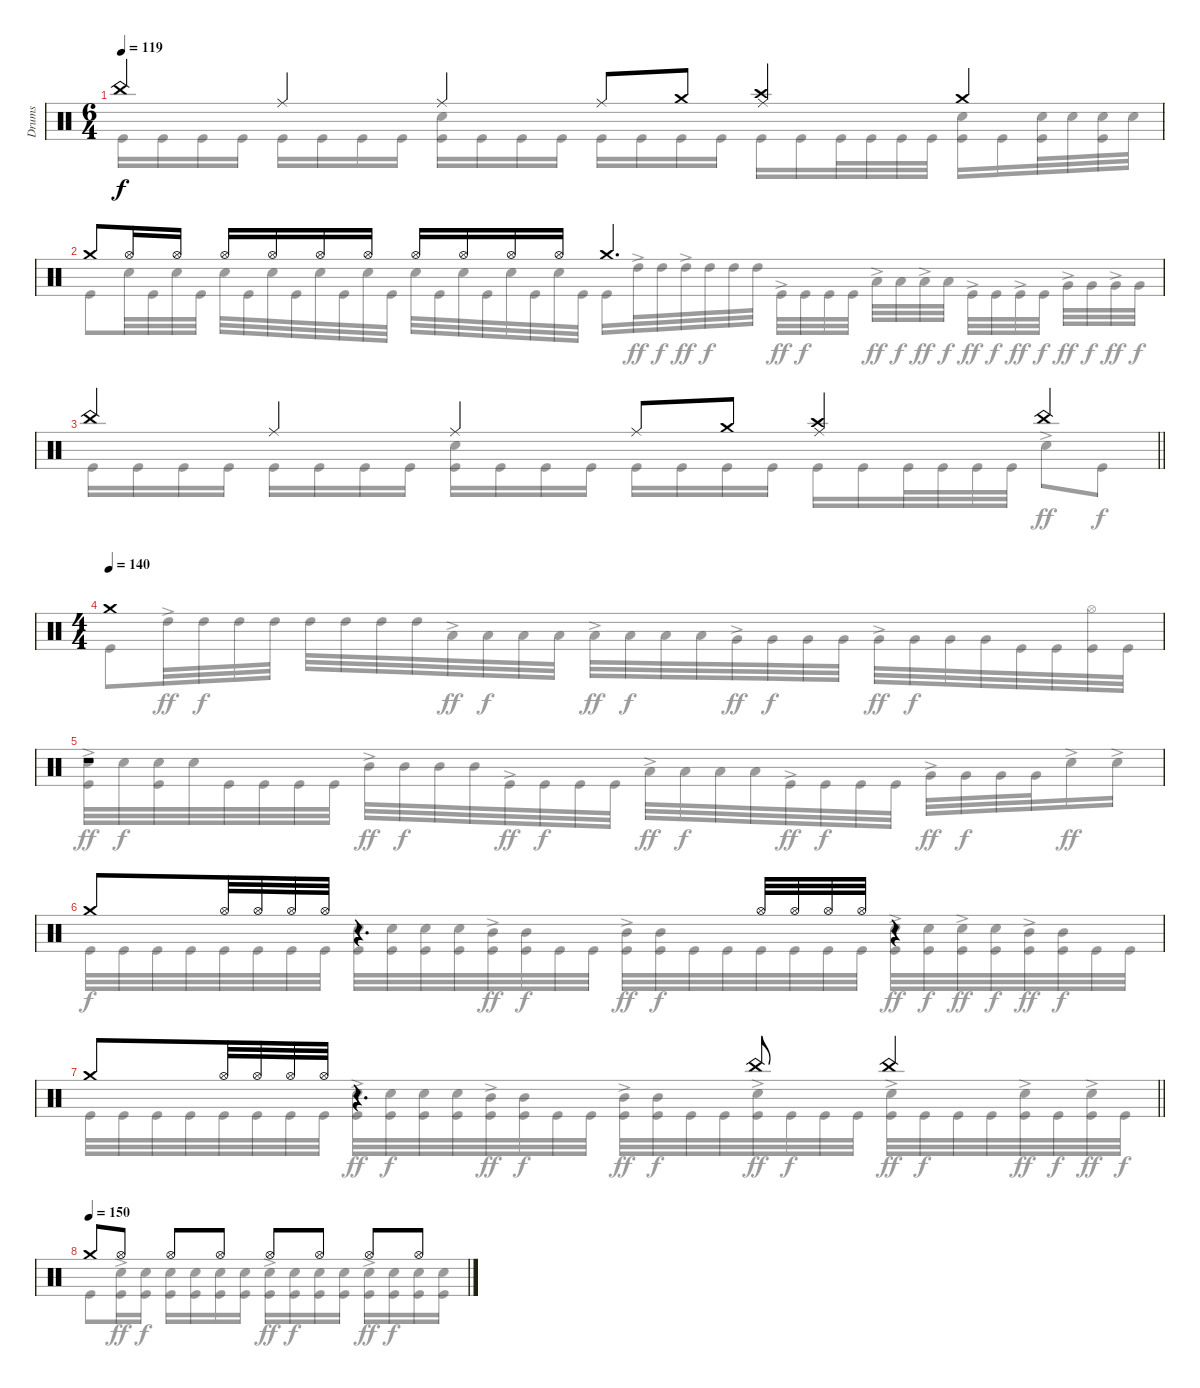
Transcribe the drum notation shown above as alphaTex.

\track ("Drums" "Drums") {instrument percussion}
\staff {score}
\articulation defaults
\voice
\ts (6 4)
\tempo 119
\clef neutral
\ks c "China (hit)".4{dy f} "Ride (middle)".4 "Ride (middle)".4 "Ride (middle)".8 "Crash medium (hit)".8
("Ride (middle)" "Crash high (hit)").4 "Crash medium (hit)".4 |
"Crash medium (hit)".8 "Hi-Hat (open)".16 "Hi-Hat (open)".16 "Hi-Hat (open)".16 "Hi-Hat (open)".16 "Hi-Hat (open)".16 "Hi-Hat (open)".16 "Hi-Hat (open)".16 "Hi-Hat (open)".16 "Hi-Hat (open)".16 "Hi-Hat (open)".16 "Crash medium (hit)".2{d} |
\barLineRight lightlight "China (hit)".4 "Ride (middle)".4 "Ride (middle)".4 "Ride (middle)".8 "Crash medium (hit)".8
("Ride (middle)" "Crash high (hit)").4 "China (hit)".4 |
\ts (4 4)
\section ("" "")
\tempo 120
\tempo (140)
"Crash medium (hit)".1 |
r.1 |
"Crash medium (hit)".8 "Hi-Hat (open)".32 "Hi-Hat (open)".32 "Hi-Hat (open)".32 "Hi-Hat (open)".32 r.4{d} "Hi-Hat (open)".32 "Hi-Hat (open)".32 "Hi-Hat (open)".32 "Hi-Hat (open)".32 r.4 |
\barLineRight lightlight "Crash medium (hit)".8 "Hi-Hat (open)".32 "Hi-Hat (open)".32 "Hi-Hat (open)".32 "Hi-Hat (open)".32
r.4{d} "China (hit)".8 "China (hit)".4 |
\tempo (150)
"Crash medium (hit)".8 "Hi-Hat (open)".8 "Hi-Hat (open)".8 "Hi-Hat (open)".8 "Hi-Hat (open)".8 "Hi-Hat (open)".8 "Hi-Hat (open)".8 "Hi-Hat (open)".8
\voice
\clef neutral
\ottava regular
\simile none
\ks c "Kick (hit)".16{dy f} "Kick (hit)".16 "Kick (hit)".16 "Kick (hit)".16{beam split} "Kick (hit)".16 "Kick (hit)".16 "Kick (hit)".16 "Kick (hit)".16{beam split}
("Snare (hit) 2" "Kick (hit)").16 "Kick (hit)".16 "Kick (hit)".16 "Kick (hit)".16 "Kick (hit)".16 "Kick (hit)".16 "Kick (hit)".16 "Kick (hit)".16{beam split} "Kick (hit)".16 "Kick (hit)".16 "Kick (hit)".32 "Kick (hit)".32 "Kick (hit)".32 "Kick (hit)".32{beam split} ("Snare (hit) 2" "Kick (hit)").16 "Kick (hit)".16 ("Snare (hit) 2" "Kick (hit)").32 "Snare (hit) 2".32 ("Snare (hit) 2" "Kick (hit)").32 "Snare (hit) 2".32 |
"Kick (hit)".8 "Snare (hit) 2".32 "Kick (hit)".32 "Snare (hit) 2".32 "Kick (hit)".32 "Snare (hit) 2".32 "Kick (hit)".32 "Snare (hit) 2".32 "Kick (hit)".32 "Snare (hit) 2".32 "Kick (hit)".32 "Snare (hit) 2".32 "Kick (hit)".32 "Snare (hit) 2".32 "Kick (hit)".32 "Snare (hit) 2".32 "Kick (hit)".32 "Snare (hit) 2".32 "Kick (hit)".32 "Snare (hit) 2".32 "Kick (hit)".32 "Kick (hit)".16 "High Tom (hit)"{ac}.32{dy ff} "High Tom (hit)".32{dy f} "High Tom (hit)"{ac}.32{dy ff} "High Tom (hit)".32{dy f} "High Tom (hit)".32 "High Tom (hit)".32{beam split} "Kick (hit)"{ac}.32{dy ff} "Kick (hit)".32{dy f} "Kick (hit)".32 "Kick (hit)".32{beam split} "Low Tom (hit)"{ac}.32{dy ff} "Low Tom (hit)".32{dy f} "Low Tom (hit)"{ac}.32{dy ff} "Low Tom (hit)".32{dy f beam split} "Kick (hit)"{ac}.32{dy ff} "Kick (hit)".32{dy f} "Kick (hit)"{ac}.32{dy ff} "Kick (hit)".32{dy f beam split} "Very Low Tom (hit)"{ac}.32{dy ff} "Very Low Tom (hit)".32{dy f} "Very Low Tom (hit)"{ac}.32{dy ff} "Very Low Tom (hit)".32{dy f} |
\barLineRight lightlight "Kick (hit)".16 "Kick (hit)".16 "Kick (hit)".16 "Kick (hit)".16{beam split} "Kick (hit)".16 "Kick (hit)".16 "Kick (hit)".16 "Kick (hit)".16{beam split}
("Snare (hit) 2" "Kick (hit)").16 "Kick (hit)".16 "Kick (hit)".16 "Kick (hit)".16 "Kick (hit)".16 "Kick (hit)".16 "Kick (hit)".16 "Kick (hit)".16{beam split} "Kick (hit)".16 "Kick (hit)".16 "Kick (hit)".32 "Kick (hit)".32 "Kick (hit)".32 "Kick (hit)".32{beam split} "Snare (hit) 2"{ac}.8{dy ff} "Kick (hit)".8{dy f} |
"Kick (hit)".8 "High Tom (hit)"{ac}.32{dy ff} "High Tom (hit)".32{dy f} "High Tom (hit)".32 "High Tom (hit)".32 "High Tom (hit)".32 "High Tom (hit)".32 "High Tom (hit)".32 "High Tom (hit)".32 "Low Tom (hit)"{ac}.32{dy ff} "Low Tom (hit)".32{dy f} "Low Tom (hit)".32 "Low Tom (hit)".32 "Low Tom (hit)"{ac}.32{dy ff} "Low Tom (hit)".32{dy f} "Low Tom (hit)".32 "Low Tom (hit)".32 "Very Low Tom (hit)"{ac}.32{dy ff} "Very Low Tom (hit)".32{dy f} "Very Low Tom (hit)".32 "Very Low Tom (hit)".32 "Very Low Tom (hit)"{ac}.32{dy ff} "Very Low Tom (hit)".32{dy f} "Very Low Tom (hit)".32 "Very Low Tom (hit)".32 "Kick (hit)".32 "Kick (hit)".32 ("Hi-Hat (open)" "Kick (hit)").32 "Kick (hit)".32 |
("Snare (hit) 2"{ac} "Kick (hit)").32{dy ff} "Snare (hit) 2".32{dy f} ("Snare (hit) 2" "Kick (hit)").32 "Snare (hit) 2".32 "Kick (hit)".32 "Kick (hit)".32 "Kick (hit)".32 "Kick (hit)".32 "Mid Tom (hit)"{ac}.32{dy ff} "Mid Tom (hit)".32{dy f} "Mid Tom (hit)".32 "Mid Tom (hit)".32 "Kick (hit)"{ac}.32{dy ff} "Kick (hit)".32{dy f} "Kick (hit)".32 "Kick (hit)".32 "Low Tom (hit)"{ac}.32{dy ff} "Low Tom (hit)".32{dy f} "Low Tom (hit)".32 "Low Tom (hit)".32 "Kick (hit)"{ac}.32{dy ff} "Kick (hit)".32{dy f} "Kick (hit)".32 "Kick (hit)".32 "Very Low Tom (hit)"{ac}.32{dy ff} "Very Low Tom (hit)".32{dy f} "Very Low Tom (hit)".32 "Very Low Tom (hit)".32 "Snare (hit) 2"{ac}.16{dy ff} "Snare (hit) 2"{ac}.16 |
"Kick (hit)".32{dy f} "Kick (hit)".32 "Kick (hit)".32 "Kick (hit)".32 "Kick (hit)".32 "Kick (hit)".32 "Kick (hit)".32 "Kick (hit)".32 ("Snare (hit) 2" "Kick (hit)").32 ("Snare (hit) 2" "Kick (hit)").32 ("Snare (hit) 2" "Kick (hit)").32 ("Snare (hit) 2" "Kick (hit)").32 ("Mid Tom (hit)"{ac} "Kick (hit)").32{dy ff} ("Mid Tom (hit)" "Kick (hit)").32{dy f} "Kick (hit)".32 "Kick (hit)".32 ("Mid Tom (hit)"{ac} "Kick (hit)").32{dy ff} ("Mid Tom (hit)" "Kick (hit)").32{dy f} "Kick (hit)".32 "Kick (hit)".32 "Kick (hit)".32 "Kick (hit)".32 "Kick (hit)".32 "Kick (hit)".32 ("Snare (hit) 2"{ac} "Kick (hit)").32{dy ff} ("Snare (hit) 2" "Kick (hit)").32{dy f} ("Snare (hit) 2"{ac} "Kick (hit)").32{dy ff} ("Snare (hit) 2" "Kick (hit)").32{dy f} ("Mid Tom (hit)"{ac} "Kick (hit)").32{dy ff} ("Mid Tom (hit)" "Kick (hit)").32{dy f} "Kick (hit)".32 "Kick (hit)".32 |
\barLineRight lightlight "Kick (hit)".32 "Kick (hit)".32 "Kick (hit)".32 "Kick (hit)".32 "Kick (hit)".32 "Kick (hit)".32 "Kick (hit)".32 "Kick (hit)".32
("Snare (hit) 2"{ac} "Kick (hit)").32{dy ff} ("Snare (hit) 2" "Kick (hit)").32{dy f} ("Snare (hit) 2" "Kick (hit)").32 ("Snare (hit) 2" "Kick (hit)").32 ("Mid Tom (hit)"{ac} "Kick (hit)").32{dy ff} ("Mid Tom (hit)" "Kick (hit)").32{dy f} "Kick (hit)".32 "Kick (hit)".32 ("Mid Tom (hit)"{ac} "Kick (hit)").32{dy ff} ("Mid Tom (hit)" "Kick (hit)").32{dy f} "Kick (hit)".32 "Kick (hit)".32 ("Snare (hit) 2"{ac} "Kick (hit)").32{dy ff} "Kick (hit)".32{dy f} "Kick (hit)".32 "Kick (hit)".32 ("Snare (hit) 2"{ac} "Kick (hit)").32{dy ff} "Kick (hit)".32{dy f} "Kick (hit)".32 "Kick (hit)".32 ("Snare (hit) 2"{ac} "Kick (hit)").32{dy ff} "Kick (hit)".32{dy f} ("Snare (hit) 2"{ac} "Kick (hit)").32{dy ff} "Kick (hit)".32{dy f} |
"Kick (hit)".8 ("Snare (hit) 2"{ac} "Kick (hit)").16{dy ff} ("Snare (hit) 2" "Kick (hit)").16{dy f} ("Snare (hit) 2" "Kick (hit)").16 ("Snare (hit) 2" "Kick (hit)").16 ("Snare (hit) 2" "Kick (hit)").16 ("Snare (hit) 2" "Kick (hit)").16 ("Snare (hit) 2"{ac} "Kick (hit)").16{dy ff} ("Snare (hit) 2" "Kick (hit)").16{dy f} ("Snare (hit) 2" "Kick (hit)").16 ("Snare (hit) 2" "Kick (hit)").16 ("Snare (hit) 2"{ac} "Kick (hit)").16{dy ff} ("Snare (hit) 2" "Kick (hit)").16{dy f} ("Snare (hit) 2" "Kick (hit)").16 ("Snare (hit) 2" "Kick (hit)").16
